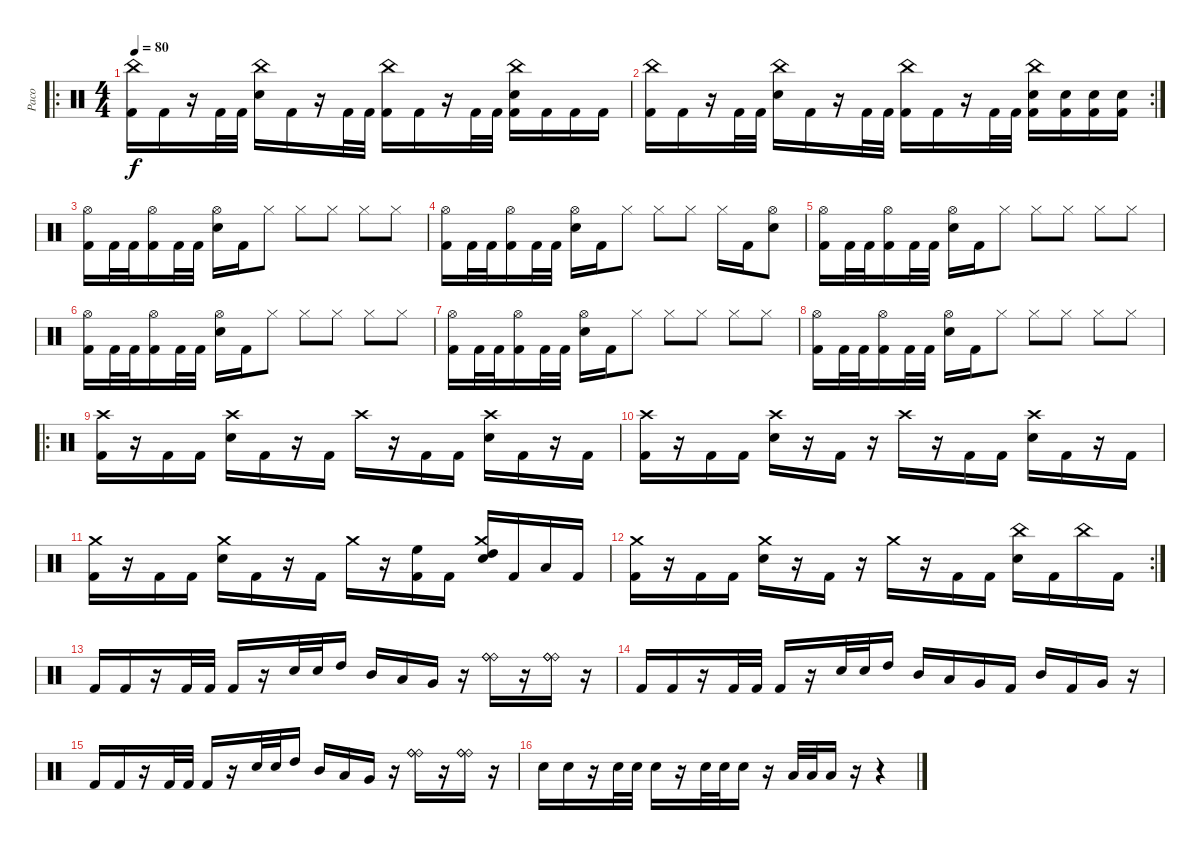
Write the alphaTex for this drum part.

\track ("Paco" "Paco") {instrument percussion}
\staff {score}
\articulation defaults
\ro
\ts (4 4)
\tempo 80
\clef neutral
\ks c
("China (hit)" "Kick (hit) 2").16{dy f} "Kick (hit) 2".16 r.16 "Kick (hit) 2".32 "Kick (hit) 2".32 ("China (hit)" "Electric Snare (hit)").16 "Kick (hit) 2".16 r.16 "Kick (hit) 2".32 "Kick (hit) 2".32 ("China (hit)" "Kick (hit) 2").16 "Kick (hit) 2".16 r.16 "Kick (hit) 2".32 "Kick (hit) 2".32 ("China (hit)" "Electric Snare (hit)" "Kick (hit) 2").16 "Kick (hit) 2".16 "Kick (hit) 2".16 "Kick (hit) 2".16 |
\rc 2
("China (hit)" "Kick (hit) 2").16 "Kick (hit) 2".16 r.16 "Kick (hit) 2".32 "Kick (hit) 2".32 ("China (hit)" "Electric Snare (hit)").16 "Kick (hit) 2".16 r.16 "Kick (hit) 2".32 "Kick (hit) 2".32 ("China (hit)" "Kick (hit) 2").16 "Kick (hit) 2".16 r.16 "Kick (hit) 2".32 "Kick (hit) 2".32 ("China (hit)" "Electric Snare (hit)" "Kick (hit) 2").16 ("Electric Snare (hit)" "Kick (hit) 2").16 ("Electric Snare (hit)" "Kick (hit) 2").16 ("Electric Snare (hit)" "Kick (hit) 2").16 |
("Hi-Hat (open)" "Kick (hit) 2").16 "Kick (hit) 2".32 "Kick (hit) 2".32 ("Hi-Hat (open)" "Kick (hit) 2").16 "Kick (hit) 2".32 "Kick (hit) 2".32 ("Hi-Hat (open)" "Electric Snare (hit)").16 "Kick (hit) 2".16 "Hi-Hat (closed)".8 "Hi-Hat (closed)".8 "Hi-Hat (closed)".8 "Hi-Hat (closed)".8 "Hi-Hat (closed)".8 |
("Hi-Hat (open)" "Kick (hit) 2").16 "Kick (hit) 2".32 "Kick (hit) 2".32 ("Hi-Hat (open)" "Kick (hit) 2").16 "Kick (hit) 2".32 "Kick (hit) 2".32 ("Hi-Hat (open)" "Electric Snare (hit)").16 "Kick (hit) 2".16 "Hi-Hat (closed)".8 "Hi-Hat (closed)".8 "Hi-Hat (closed)".8 "Hi-Hat (closed)".16 "Kick (hit) 2".16 ("Hi-Hat (open)" "Snare (hit) 2").8 |
("Hi-Hat (open)" "Kick (hit) 2").16 "Kick (hit) 2".32 "Kick (hit) 2".32 ("Hi-Hat (open)" "Kick (hit) 2").16 "Kick (hit) 2".32 "Kick (hit) 2".32 ("Hi-Hat (open)" "Electric Snare (hit)").16 "Kick (hit) 2".16 "Hi-Hat (closed)".8 "Hi-Hat (closed)".8 "Hi-Hat (closed)".8 "Hi-Hat (closed)".8 "Hi-Hat (closed)".8 |
("Hi-Hat (open)" "Kick (hit) 2").16 "Kick (hit) 2".32 "Kick (hit) 2".32 ("Hi-Hat (open)" "Kick (hit) 2").16 "Kick (hit) 2".32 "Kick (hit) 2".32 ("Hi-Hat (open)" "Electric Snare (hit)").16 "Kick (hit) 2".16 "Hi-Hat (closed)".8 "Hi-Hat (closed)".8 "Hi-Hat (closed)".8 "Hi-Hat (closed)".8 "Hi-Hat (closed)".8 |
("Hi-Hat (open)" "Kick (hit) 2").16 "Kick (hit) 2".32 "Kick (hit) 2".32 ("Hi-Hat (open)" "Kick (hit) 2").16 "Kick (hit) 2".32 "Kick (hit) 2".32 ("Hi-Hat (open)" "Electric Snare (hit)").16 "Kick (hit) 2".16 "Hi-Hat (closed)".8 "Hi-Hat (closed)".8 "Hi-Hat (closed)".8 "Hi-Hat (closed)".8 "Hi-Hat (closed)".8 |
("Hi-Hat (open)" "Kick (hit) 2").16 "Kick (hit) 2".32 "Kick (hit) 2".32 ("Hi-Hat (open)" "Kick (hit) 2").16 "Kick (hit) 2".32 "Kick (hit) 2".32 ("Hi-Hat (open)" "Electric Snare (hit)").16 "Kick (hit) 2".16 "Hi-Hat (closed)".8 "Hi-Hat (closed)".8 "Hi-Hat (closed)".8 "Hi-Hat (closed)".8 "Hi-Hat (closed)".8 |
\ro
("Crash high (hit)" "Kick (hit) 2").16 r.16 "Kick (hit) 2".16 "Kick (hit) 2".16 ("Crash high (hit)" "Electric Snare (hit)").16 "Kick (hit) 2".16 r.16 "Kick (hit) 2".16 "Crash high (hit)".16 r.16 "Kick (hit) 2".16 "Kick (hit) 2".16 ("Crash high (hit)" "Electric Snare (hit)").16 "Kick (hit) 2".16 r.16 "Kick (hit) 2".16 |
("Crash high (hit)" "Kick (hit) 2").16 r.16 "Kick (hit) 2".16 "Kick (hit) 2".16 ("Crash high (hit)" "Electric Snare (hit)").16 r.16 "Kick (hit) 2".16 r.16 "Crash high (hit)".16 r.16 "Kick (hit) 2".16 "Kick (hit) 2".16 ("Crash high (hit)" "Electric Snare (hit)").16 "Kick (hit) 2".16 r.16 "Kick (hit) 2".16 |
("Crash medium (hit)" "Kick (hit) 2").16 r.16 "Kick (hit) 2".16 "Kick (hit) 2".16 ("Crash medium (hit)" "Electric Snare (hit)").16 "Kick (hit) 2".16 r.16 "Kick (hit) 2".16 "Crash medium (hit)".16 r.16 ("High Floor Tom (hit)" "Kick (hit) 2").16 "Kick (hit) 2".16 ("Crash medium (hit)" "High Tom (hit)" "Electric Snare (hit)").16 "Kick (hit) 2".16 "Low Tom (hit)".16 "Kick (hit) 2".16 |
\rc 2
("Crash medium (hit)" "Kick (hit) 2").16 r.16 "Kick (hit) 2".16 "Kick (hit) 2".16 ("Crash medium (hit)" "Electric Snare (hit)").16 r.16 "Kick (hit) 2".16 r.16 "Crash medium (hit)".16 r.16 "Kick (hit) 2".16 "Kick (hit) 2".16 ("China (hit)" "Electric Snare (hit)").16 "Kick (hit) 2".16 "China (hit)".16 "Kick (hit) 2".16 |
"Kick (hit) 2".16 "Kick (hit) 2".16 r.16 "Kick (hit) 2".32 "Kick (hit) 2".32 "Kick (hit) 2".16 r.16 "Electric Snare (hit)".32 "Electric Snare (hit)".32 "High Tom (hit)".16 "Mid Tom (hit)".16 "Low Tom (hit)".16 "Very Low Tom (hit)".16 r.16 ("Ride (bell)" "Ride (bell)" "Ride (bell)").16 r.16 ("Ride (bell)" "Ride (bell)" "Ride (bell)").16 r.16 |
"Kick (hit) 2".16 "Kick (hit) 2".16 r.16 "Kick (hit) 2".32 "Kick (hit) 2".32 "Kick (hit) 2".16 r.16 "Electric Snare (hit)".32 "Electric Snare (hit)".32 "High Tom (hit)".16 "Mid Tom (hit)".16 "Low Tom (hit)".16 "Very Low Tom (hit)".16 "Kick (hit) 2".16 "Mid Tom (hit)".16 "Kick (hit) 2".16 "Very Low Tom (hit)".16 r.16 |
"Kick (hit) 2".16 "Kick (hit) 2".16 r.16 "Kick (hit) 2".32 "Kick (hit) 2".32 "Kick (hit) 2".16 r.16 "Electric Snare (hit)".32 "Electric Snare (hit)".32 "High Tom (hit)".16 "Mid Tom (hit)".16 "Low Tom (hit)".16 "Very Low Tom (hit)".16 r.16 ("Ride (bell)" "Ride (bell)" "Ride (bell)").16 r.16 ("Ride (bell)" "Ride (bell)" "Ride (bell)").16 r.16 |
"Electric Snare (hit)".16 "Electric Snare (hit)".16 r.16 "Electric Snare (hit)".32 "Electric Snare (hit)".32 "Electric Snare (hit)".16 r.16 "Electric Snare (hit)".32 "Electric Snare (hit)".32 "Electric Snare (hit)".16 r.16 "Low Floor Tom (hit)".32 "Low Floor Tom (hit)".32 "Low Floor Tom (hit)".16 r.16 r.4
